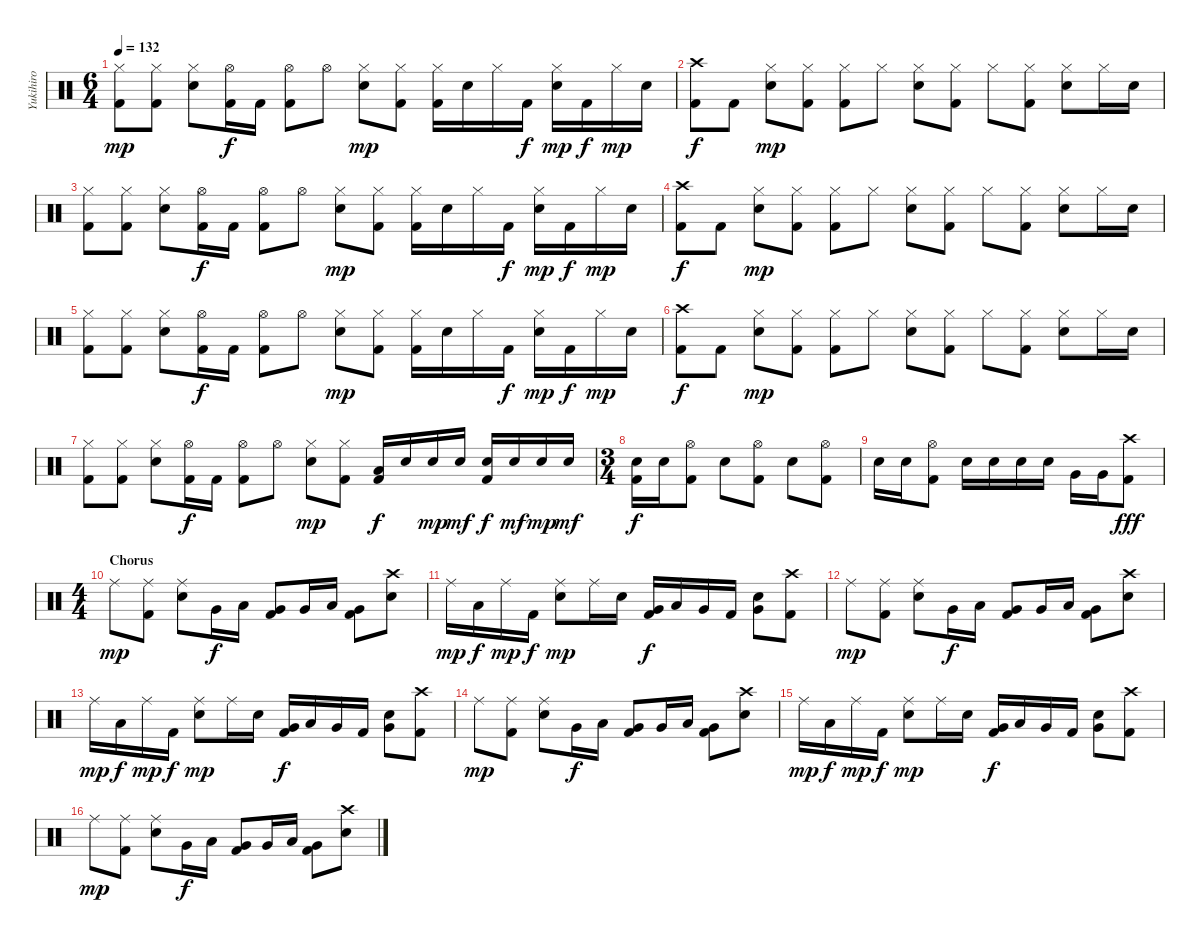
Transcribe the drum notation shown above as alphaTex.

\track ("Yukihiro" "Yukihiro") {instrument percussion}
\staff {score}
\articulation defaults
\ts (6 4)
\tempo 132
\clef neutral
\ks c
("Hi-Hat (closed)" "Kick (hit) 2").8{dy mp} ("Hi-Hat (closed)" "Kick (hit) 2").8 ("Hi-Hat (closed)" "Electric Snare (hit)").8 ("Hi-Hat (open)" "Kick (hit) 2").16{dy f} "Kick (hit) 2".16 ("Hi-Hat (open)" "Kick (hit) 2").8 "Hi-Hat (open)".8 ("Hi-Hat (closed)" "Electric Snare (hit)").8{dy mp} ("Hi-Hat (closed)" "Kick (hit) 2").8 ("Hi-Hat (closed)" "Kick (hit) 2").16 "Electric Snare (hit)".16 "Hi-Hat (closed)".16 "Kick (hit) 2".16{dy f} ("Hi-Hat (closed)" "Electric Snare (hit)").16{dy mp} "Kick (hit) 2".16{dy f} "Hi-Hat (closed)".16{dy mp} "Electric Snare (hit)".16 |
("Crash high (hit)" "Kick (hit) 2").8{dy f} "Kick (hit) 2".8 ("Hi-Hat (closed)" "Electric Snare (hit)").8{dy mp} ("Hi-Hat (closed)" "Kick (hit) 2").8 ("Hi-Hat (closed)" "Kick (hit) 2").8 "Hi-Hat (closed)".8 ("Hi-Hat (closed)" "Electric Snare (hit)").8 ("Hi-Hat (closed)" "Kick (hit) 2").8 "Hi-Hat (closed)".8 ("Hi-Hat (closed)" "Kick (hit) 2").8 ("Hi-Hat (closed)" "Electric Snare (hit)").8 "Hi-Hat (closed)".16 "Electric Snare (hit)".16 |
("Hi-Hat (closed)" "Kick (hit) 2").8 ("Hi-Hat (closed)" "Kick (hit) 2").8 ("Hi-Hat (closed)" "Electric Snare (hit)").8 ("Hi-Hat (open)" "Kick (hit) 2").16{dy f} "Kick (hit) 2".16 ("Hi-Hat (open)" "Kick (hit) 2").8 "Hi-Hat (open)".8 ("Hi-Hat (closed)" "Electric Snare (hit)").8{dy mp} ("Hi-Hat (closed)" "Kick (hit) 2").8 ("Hi-Hat (closed)" "Kick (hit) 2").16 "Electric Snare (hit)".16 "Hi-Hat (closed)".16 "Kick (hit) 2".16{dy f} ("Hi-Hat (closed)" "Electric Snare (hit)").16{dy mp} "Kick (hit) 2".16{dy f} "Hi-Hat (closed)".16{dy mp} "Electric Snare (hit)".16 |
("Crash high (hit)" "Kick (hit) 2").8{dy f} "Kick (hit) 2".8 ("Hi-Hat (closed)" "Electric Snare (hit)").8{dy mp} ("Hi-Hat (closed)" "Kick (hit) 2").8 ("Hi-Hat (closed)" "Kick (hit) 2").8 "Hi-Hat (closed)".8 ("Hi-Hat (closed)" "Electric Snare (hit)").8 ("Hi-Hat (closed)" "Kick (hit) 2").8 "Hi-Hat (closed)".8 ("Hi-Hat (closed)" "Kick (hit) 2").8 ("Hi-Hat (closed)" "Electric Snare (hit)").8 "Hi-Hat (closed)".16 "Electric Snare (hit)".16 |
("Hi-Hat (closed)" "Kick (hit) 2").8 ("Hi-Hat (closed)" "Kick (hit) 2").8 ("Hi-Hat (closed)" "Electric Snare (hit)").8 ("Hi-Hat (open)" "Kick (hit) 2").16{dy f} "Kick (hit) 2".16 ("Hi-Hat (open)" "Kick (hit) 2").8 "Hi-Hat (open)".8 ("Hi-Hat (closed)" "Electric Snare (hit)").8{dy mp} ("Hi-Hat (closed)" "Kick (hit) 2").8 ("Hi-Hat (closed)" "Kick (hit) 2").16 "Electric Snare (hit)".16 "Hi-Hat (closed)".16 "Kick (hit) 2".16{dy f} ("Hi-Hat (closed)" "Electric Snare (hit)").16{dy mp} "Kick (hit) 2".16{dy f} "Hi-Hat (closed)".16{dy mp} "Electric Snare (hit)".16 |
("Crash high (hit)" "Kick (hit) 2").8{dy f} "Kick (hit) 2".8 ("Hi-Hat (closed)" "Electric Snare (hit)").8{dy mp} ("Hi-Hat (closed)" "Kick (hit) 2").8 ("Hi-Hat (closed)" "Kick (hit) 2").8 "Hi-Hat (closed)".8 ("Hi-Hat (closed)" "Electric Snare (hit)").8 ("Hi-Hat (closed)" "Kick (hit) 2").8 "Hi-Hat (closed)".8 ("Hi-Hat (closed)" "Kick (hit) 2").8 ("Hi-Hat (closed)" "Electric Snare (hit)").8 "Hi-Hat (closed)".16 "Electric Snare (hit)".16 |
("Hi-Hat (closed)" "Kick (hit) 2").8 ("Hi-Hat (closed)" "Kick (hit) 2").8 ("Hi-Hat (closed)" "Electric Snare (hit)").8 ("Hi-Hat (open)" "Kick (hit) 2").16{dy f} "Kick (hit) 2".16 ("Hi-Hat (open)" "Kick (hit) 2").8 "Hi-Hat (open)".8 ("Hi-Hat (closed)" "Electric Snare (hit)").8{dy mp} ("Hi-Hat (closed)" "Kick (hit) 2").8 ("Low Tom (hit)" "Kick (hit) 2").16{dy f} "Electric Snare (hit)".16 "Electric Snare (hit)".16{dy mp} "Electric Snare (hit)".16{dy mf} ("Electric Snare (hit)" "Kick (hit) 2").16{dy f} "Electric Snare (hit)".16{dy mf} "Electric Snare (hit)".16{dy mp} "Electric Snare (hit)".16{dy mf} |
\ts (3 4)
("Electric Snare (hit)" "Kick (hit) 2").16{dy f} "Electric Snare (hit)".16 ("Hi-Hat (open)" "Kick (hit) 2").8 "Electric Snare (hit)".8 ("Hi-Hat (open)" "Kick (hit) 2").8 "Electric Snare (hit)".8 ("Hi-Hat (open)" "Kick (hit) 2").8 |
"Electric Snare (hit)".16 "Electric Snare (hit)".16 ("Hi-Hat (open)" "Kick (hit) 2").8 "Electric Snare (hit)".16 "Electric Snare (hit)".16 "Electric Snare (hit)".16 "Electric Snare (hit)".16 "Very Low Tom (hit)".16 "Very Low Tom (hit)".16 ("Crash high (hit)" "Kick (hit) 2").8{dy fff} |
\ts (4 4)
\section ("" "Chorus")
"Ride (middle)".8{dy mp} ("Ride (middle)" "Kick (hit) 2").8 ("Ride (middle)" "Electric Snare (hit)").8 "Very Low Tom (hit)".16{dy f} "Low Tom (hit)".16 ("Very Low Tom (hit)" "Kick (hit) 2").8 "Very Low Tom (hit)".16 "Low Tom (hit)".16 ("Very Low Tom (hit)" "Kick (hit) 2").8 ("Crash high (hit)" "Electric Snare (hit)").8 |
"Ride (middle)".16{dy mp} "Low Tom (hit)".16{dy f} "Ride (middle)".16{dy mp} "Kick (hit) 2".16{dy f} ("Ride (middle)" "Electric Snare (hit)").8{dy mp} "Ride (middle)".16 "Electric Snare (hit)".16 ("Very Low Tom (hit)" "Kick (hit) 2").16{dy f} "Low Tom (hit)".16 "Very Low Tom (hit)".16 "Kick (hit) 2".16 ("Electric Snare (hit)" "Very Low Tom (hit)").8 ("Crash high (hit)" "Kick (hit) 2").8 |
"Ride (middle)".8{dy mp} ("Ride (middle)" "Kick (hit) 2").8 ("Ride (middle)" "Electric Snare (hit)").8 "Very Low Tom (hit)".16{dy f} "Low Tom (hit)".16 ("Very Low Tom (hit)" "Kick (hit) 2").8 "Very Low Tom (hit)".16 "Low Tom (hit)".16 ("Very Low Tom (hit)" "Kick (hit) 2").8 ("Crash high (hit)" "Electric Snare (hit)").8 |
"Ride (middle)".16{dy mp} "Low Tom (hit)".16{dy f} "Ride (middle)".16{dy mp} "Kick (hit) 2".16{dy f} ("Ride (middle)" "Electric Snare (hit)").8{dy mp} "Ride (middle)".16 "Electric Snare (hit)".16 ("Very Low Tom (hit)" "Kick (hit) 2").16{dy f} "Low Tom (hit)".16 "Very Low Tom (hit)".16 "Kick (hit) 2".16 ("Electric Snare (hit)" "Very Low Tom (hit)").8 ("Crash high (hit)" "Kick (hit) 2").8 |
"Ride (middle)".8{dy mp} ("Ride (middle)" "Kick (hit) 2").8 ("Ride (middle)" "Electric Snare (hit)").8 "Very Low Tom (hit)".16{dy f} "Low Tom (hit)".16 ("Very Low Tom (hit)" "Kick (hit) 2").8 "Very Low Tom (hit)".16 "Low Tom (hit)".16 ("Very Low Tom (hit)" "Kick (hit) 2").8 ("Crash high (hit)" "Electric Snare (hit)").8 |
"Ride (middle)".16{dy mp} "Low Tom (hit)".16{dy f} "Ride (middle)".16{dy mp} "Kick (hit) 2".16{dy f} ("Ride (middle)" "Electric Snare (hit)").8{dy mp} "Ride (middle)".16 "Electric Snare (hit)".16 ("Very Low Tom (hit)" "Kick (hit) 2").16{dy f} "Low Tom (hit)".16 "Very Low Tom (hit)".16 "Kick (hit) 2".16 ("Electric Snare (hit)" "Very Low Tom (hit)").8 ("Crash high (hit)" "Kick (hit) 2").8 |
"Ride (middle)".8{dy mp} ("Ride (middle)" "Kick (hit) 2").8 ("Ride (middle)" "Electric Snare (hit)").8 "Very Low Tom (hit)".16{dy f} "Low Tom (hit)".16 ("Very Low Tom (hit)" "Kick (hit) 2").8 "Very Low Tom (hit)".16 "Low Tom (hit)".16 ("Very Low Tom (hit)" "Kick (hit) 2").8 ("Crash high (hit)" "Electric Snare (hit)").8
